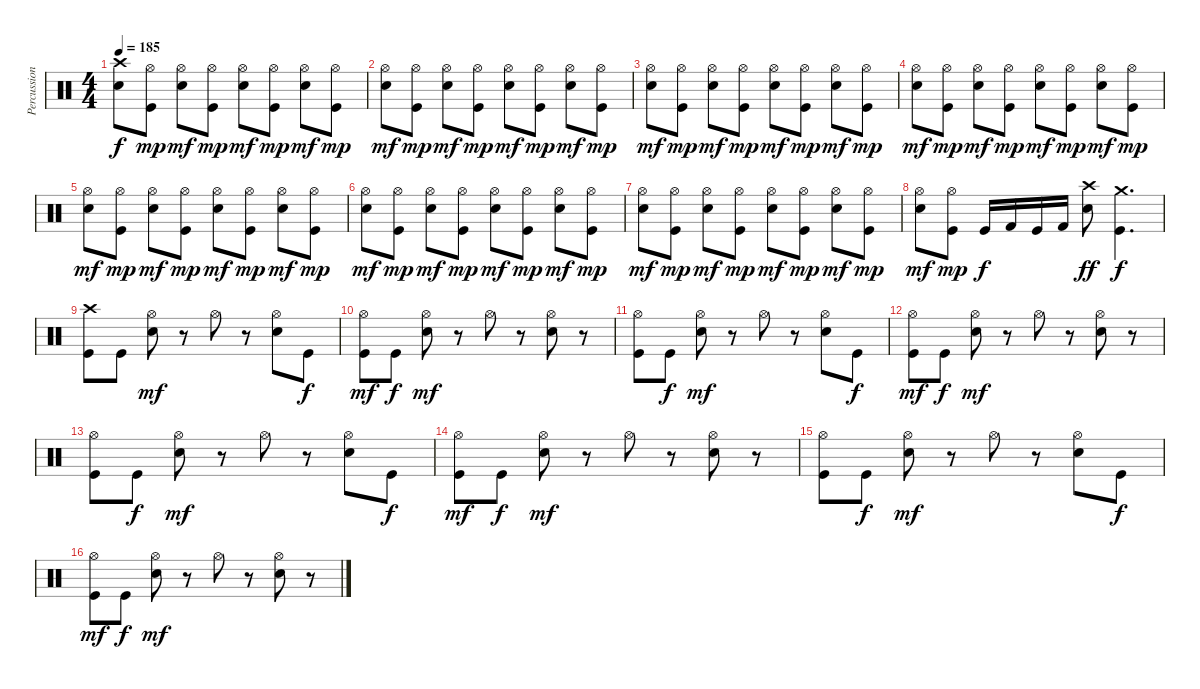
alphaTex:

\track ("Percussions" "Percussion") {instrument percussion}
\staff {score}
\articulation defaults
\ts (4 4)
\tempo 185
\clef neutral
\ks c
("Electric Snare (hit)" "Crash high (hit)").8{dy f} ("Kick (hit)" "Hi-Hat (open)").8{dy mp} ("Electric Snare (hit)" "Hi-Hat (open)").8{dy mf} ("Kick (hit)" "Hi-Hat (open)").8{dy mp} ("Electric Snare (hit)" "Hi-Hat (open)").8{dy mf} ("Kick (hit)" "Hi-Hat (open)").8{dy mp} ("Electric Snare (hit)" "Hi-Hat (open)").8{dy mf} ("Kick (hit)" "Hi-Hat (open)").8{dy mp} |
("Electric Snare (hit)" "Hi-Hat (open)").8{dy mf} ("Kick (hit)" "Hi-Hat (open)").8{dy mp} ("Electric Snare (hit)" "Hi-Hat (open)").8{dy mf} ("Kick (hit)" "Hi-Hat (open)").8{dy mp} ("Electric Snare (hit)" "Hi-Hat (open)").8{dy mf} ("Kick (hit)" "Hi-Hat (open)").8{dy mp} ("Electric Snare (hit)" "Hi-Hat (open)").8{dy mf} ("Kick (hit)" "Hi-Hat (open)").8{dy mp} |
("Electric Snare (hit)" "Hi-Hat (open)").8{dy mf} ("Kick (hit)" "Hi-Hat (open)").8{dy mp} ("Electric Snare (hit)" "Hi-Hat (open)").8{dy mf} ("Kick (hit)" "Hi-Hat (open)").8{dy mp} ("Electric Snare (hit)" "Hi-Hat (open)").8{dy mf} ("Kick (hit)" "Hi-Hat (open)").8{dy mp} ("Electric Snare (hit)" "Hi-Hat (open)").8{dy mf} ("Kick (hit)" "Hi-Hat (open)").8{dy mp} |
("Electric Snare (hit)" "Hi-Hat (open)").8{dy mf} ("Kick (hit)" "Hi-Hat (open)").8{dy mp} ("Electric Snare (hit)" "Hi-Hat (open)").8{dy mf} ("Kick (hit)" "Hi-Hat (open)").8{dy mp} ("Electric Snare (hit)" "Hi-Hat (open)").8{dy mf} ("Kick (hit)" "Hi-Hat (open)").8{dy mp} ("Electric Snare (hit)" "Hi-Hat (open)").8{dy mf} ("Kick (hit)" "Hi-Hat (open)").8{dy mp} |
("Electric Snare (hit)" "Hi-Hat (open)").8{dy mf} ("Kick (hit)" "Hi-Hat (open)").8{dy mp} ("Electric Snare (hit)" "Hi-Hat (open)").8{dy mf} ("Kick (hit)" "Hi-Hat (open)").8{dy mp} ("Electric Snare (hit)" "Hi-Hat (open)").8{dy mf} ("Kick (hit)" "Hi-Hat (open)").8{dy mp} ("Electric Snare (hit)" "Hi-Hat (open)").8{dy mf} ("Kick (hit)" "Hi-Hat (open)").8{dy mp} |
("Electric Snare (hit)" "Hi-Hat (open)").8{dy mf} ("Kick (hit)" "Hi-Hat (open)").8{dy mp} ("Electric Snare (hit)" "Hi-Hat (open)").8{dy mf} ("Kick (hit)" "Hi-Hat (open)").8{dy mp} ("Electric Snare (hit)" "Hi-Hat (open)").8{dy mf} ("Kick (hit)" "Hi-Hat (open)").8{dy mp} ("Electric Snare (hit)" "Hi-Hat (open)").8{dy mf} ("Kick (hit)" "Hi-Hat (open)").8{dy mp} |
("Electric Snare (hit)" "Hi-Hat (open)").8{dy mf} ("Kick (hit)" "Hi-Hat (open)").8{dy mp} ("Electric Snare (hit)" "Hi-Hat (open)").8{dy mf} ("Kick (hit)" "Hi-Hat (open)").8{dy mp} ("Electric Snare (hit)" "Hi-Hat (open)").8{dy mf} ("Kick (hit)" "Hi-Hat (open)").8{dy mp} ("Electric Snare (hit)" "Hi-Hat (open)").8{dy mf} ("Kick (hit)" "Hi-Hat (open)").8{dy mp} |
("Electric Snare (hit)" "Hi-Hat (open)").8{dy mf} ("Kick (hit)" "Hi-Hat (open)").8{dy mp} "Kick (hit)".16{dy f} "Kick (hit) 2".16 "Kick (hit)".16 "Kick (hit) 2".16 ("Electric Snare (hit)" "Crash high (hit)").8{dy ff} ("Kick (hit)" "Crash medium (hit)").4{d dy f} |
("Kick (hit)" "Crash high (hit)").8 "Kick (hit)".8 ("Electric Snare (hit)" "Hi-Hat (open)").8{dy mf} r.8 "Hi-Hat (open)".8 r.8 ("Electric Snare (hit)" "Hi-Hat (open)").8 "Kick (hit)".8{dy f} |
("Kick (hit)" "Hi-Hat (open)").8{dy mf} "Kick (hit)".8{dy f} ("Electric Snare (hit)" "Hi-Hat (open)").8{dy mf} r.8 "Hi-Hat (open)".8 r.8 ("Electric Snare (hit)" "Hi-Hat (open)").8 r.8 |
("Kick (hit)" "Hi-Hat (open)").8 "Kick (hit)".8{dy f} ("Electric Snare (hit)" "Hi-Hat (open)").8{dy mf} r.8 "Hi-Hat (open)".8 r.8 ("Electric Snare (hit)" "Hi-Hat (open)").8 "Kick (hit)".8{dy f} |
("Kick (hit)" "Hi-Hat (open)").8{dy mf} "Kick (hit)".8{dy f} ("Electric Snare (hit)" "Hi-Hat (open)").8{dy mf} r.8 "Hi-Hat (open)".8 r.8 ("Electric Snare (hit)" "Hi-Hat (open)").8 r.8 |
("Kick (hit)" "Hi-Hat (open)").8 "Kick (hit)".8{dy f} ("Electric Snare (hit)" "Hi-Hat (open)").8{dy mf} r.8 "Hi-Hat (open)".8 r.8 ("Electric Snare (hit)" "Hi-Hat (open)").8 "Kick (hit)".8{dy f} |
("Kick (hit)" "Hi-Hat (open)").8{dy mf} "Kick (hit)".8{dy f} ("Electric Snare (hit)" "Hi-Hat (open)").8{dy mf} r.8 "Hi-Hat (open)".8 r.8 ("Electric Snare (hit)" "Hi-Hat (open)").8 r.8 |
("Kick (hit)" "Hi-Hat (open)").8 "Kick (hit)".8{dy f} ("Electric Snare (hit)" "Hi-Hat (open)").8{dy mf} r.8 "Hi-Hat (open)".8 r.8 ("Electric Snare (hit)" "Hi-Hat (open)").8 "Kick (hit)".8{dy f} |
("Kick (hit)" "Hi-Hat (open)").8{dy mf} "Kick (hit)".8{dy f} ("Electric Snare (hit)" "Hi-Hat (open)").8{dy mf} r.8 "Hi-Hat (open)".8 r.8 ("Electric Snare (hit)" "Hi-Hat (open)").8 r.8
